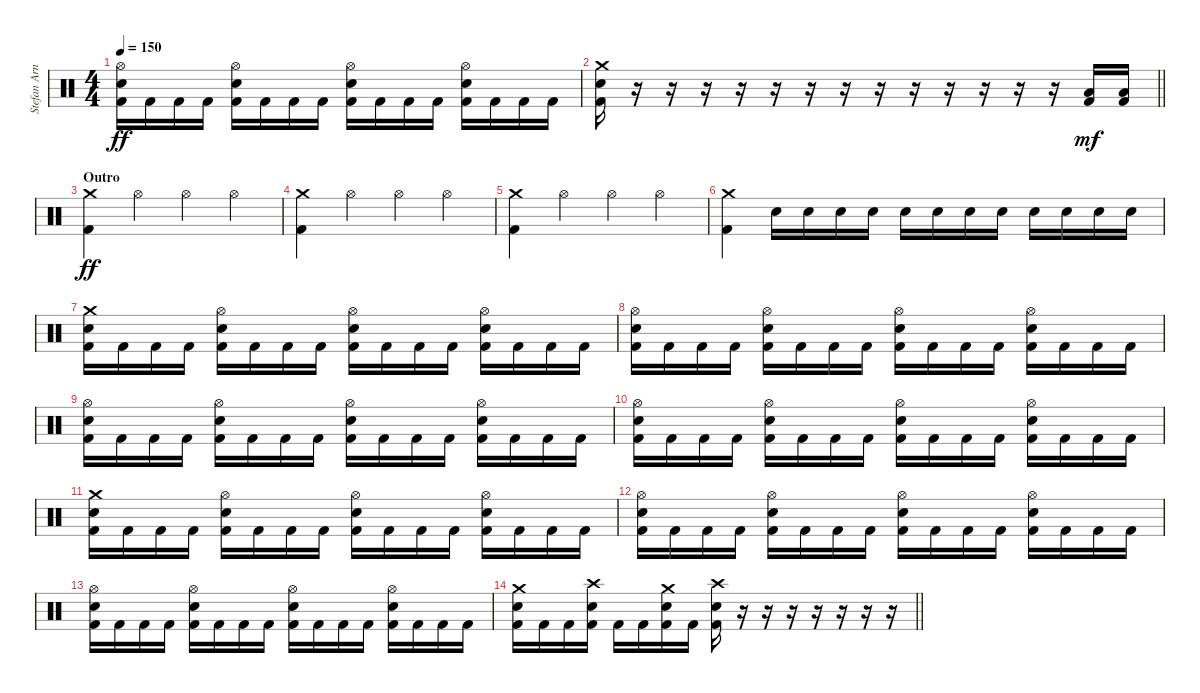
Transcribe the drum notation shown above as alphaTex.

\track ("Stefan Arnold" "Stefan Arn") {instrument percussion}
\staff {score}
\articulation defaults
\ts (4 4)
\tempo 150
\clef neutral
\ks c
("Hi-Hat (open)" "Electric Snare (hit)" "Kick (hit) 2").16{dy ff} "Kick (hit) 2".16 "Kick (hit) 2".16 "Kick (hit) 2".16 ("Hi-Hat (open)" "Electric Snare (hit)" "Kick (hit) 2").16 "Kick (hit) 2".16 "Kick (hit) 2".16 "Kick (hit) 2".16 ("Hi-Hat (open)" "Electric Snare (hit)" "Kick (hit) 2").16 "Kick (hit) 2".16 "Kick (hit) 2".16 "Kick (hit) 2".16 ("Hi-Hat (open)" "Electric Snare (hit)" "Kick (hit) 2").16 "Kick (hit) 2".16 "Kick (hit) 2".16 "Kick (hit) 2".16 |
\barLineRight lightlight
("Crash medium (hit)" "Electric Snare (hit)" "Kick (hit) 2").16 r.16 r.16 r.16 r.16 r.16 r.16 r.16 r.16 r.16 r.16 r.16 r.16 r.16 ("Low Floor Tom (hit)" "Kick (hit) 2").16{dy mf} ("Low Floor Tom (hit)" "Kick (hit) 2").16 |
\section ("" "Outro")
("Crash medium (hit)" "Kick (hit) 2").4{dy ff} "Hi-Hat (open)".4 "Hi-Hat (open)".4 "Hi-Hat (open)".4 |
("Crash medium (hit)" "Kick (hit) 2").4 "Hi-Hat (open)".4 "Hi-Hat (open)".4 "Hi-Hat (open)".4 |
("Crash medium (hit)" "Kick (hit) 2").4 "Hi-Hat (open)".4 "Hi-Hat (open)".4 "Hi-Hat (open)".4 |
("Crash medium (hit)" "Kick (hit) 2").4 "Electric Snare (hit)".16 "Electric Snare (hit)".16 "Electric Snare (hit)".16 "Electric Snare (hit)".16 "Electric Snare (hit)".16 "Electric Snare (hit)".16 "Electric Snare (hit)".16 "Electric Snare (hit)".16 "Electric Snare (hit)".16 "Electric Snare (hit)".16 "Electric Snare (hit)".16 "Electric Snare (hit)".16 |
("Crash medium (hit)" "Electric Snare (hit)" "Kick (hit) 2").16 "Kick (hit) 2".16 "Kick (hit) 2".16 "Kick (hit) 2".16 ("Hi-Hat (open)" "Electric Snare (hit)" "Kick (hit) 2").16 "Kick (hit) 2".16 "Kick (hit) 2".16 "Kick (hit) 2".16 ("Hi-Hat (open)" "Electric Snare (hit)" "Kick (hit) 2").16 "Kick (hit) 2".16 "Kick (hit) 2".16 "Kick (hit) 2".16 ("Hi-Hat (open)" "Electric Snare (hit)" "Kick (hit) 2").16 "Kick (hit) 2".16 "Kick (hit) 2".16 "Kick (hit) 2".16 |
("Hi-Hat (open)" "Electric Snare (hit)" "Kick (hit) 2").16 "Kick (hit) 2".16 "Kick (hit) 2".16 "Kick (hit) 2".16 ("Hi-Hat (open)" "Electric Snare (hit)" "Kick (hit) 2").16 "Kick (hit) 2".16 "Kick (hit) 2".16 "Kick (hit) 2".16 ("Hi-Hat (open)" "Electric Snare (hit)" "Kick (hit) 2").16 "Kick (hit) 2".16 "Kick (hit) 2".16 "Kick (hit) 2".16 ("Hi-Hat (open)" "Electric Snare (hit)" "Kick (hit) 2").16 "Kick (hit) 2".16 "Kick (hit) 2".16 "Kick (hit) 2".16 |
("Hi-Hat (open)" "Electric Snare (hit)" "Kick (hit) 2").16 "Kick (hit) 2".16 "Kick (hit) 2".16 "Kick (hit) 2".16 ("Hi-Hat (open)" "Electric Snare (hit)" "Kick (hit) 2").16 "Kick (hit) 2".16 "Kick (hit) 2".16 "Kick (hit) 2".16 ("Hi-Hat (open)" "Electric Snare (hit)" "Kick (hit) 2").16 "Kick (hit) 2".16 "Kick (hit) 2".16 "Kick (hit) 2".16 ("Hi-Hat (open)" "Electric Snare (hit)" "Kick (hit) 2").16 "Kick (hit) 2".16 "Kick (hit) 2".16 "Kick (hit) 2".16 |
("Hi-Hat (open)" "Electric Snare (hit)" "Kick (hit) 2").16 "Kick (hit) 2".16 "Kick (hit) 2".16 "Kick (hit) 2".16 ("Hi-Hat (open)" "Electric Snare (hit)" "Kick (hit) 2").16 "Kick (hit) 2".16 "Kick (hit) 2".16 "Kick (hit) 2".16 ("Hi-Hat (open)" "Electric Snare (hit)" "Kick (hit) 2").16 "Kick (hit) 2".16 "Kick (hit) 2".16 "Kick (hit) 2".16 ("Hi-Hat (open)" "Electric Snare (hit)" "Kick (hit) 2").16 "Kick (hit) 2".16 "Kick (hit) 2".16 "Kick (hit) 2".16 |
("Crash medium (hit)" "Electric Snare (hit)" "Kick (hit) 2").16 "Kick (hit) 2".16 "Kick (hit) 2".16 "Kick (hit) 2".16 ("Hi-Hat (open)" "Electric Snare (hit)" "Kick (hit) 2").16 "Kick (hit) 2".16 "Kick (hit) 2".16 "Kick (hit) 2".16 ("Hi-Hat (open)" "Electric Snare (hit)" "Kick (hit) 2").16 "Kick (hit) 2".16 "Kick (hit) 2".16 "Kick (hit) 2".16 ("Hi-Hat (open)" "Electric Snare (hit)" "Kick (hit) 2").16 "Kick (hit) 2".16 "Kick (hit) 2".16 "Kick (hit) 2".16 |
("Hi-Hat (open)" "Electric Snare (hit)" "Kick (hit) 2").16 "Kick (hit) 2".16 "Kick (hit) 2".16 "Kick (hit) 2".16 ("Hi-Hat (open)" "Electric Snare (hit)" "Kick (hit) 2").16 "Kick (hit) 2".16 "Kick (hit) 2".16 "Kick (hit) 2".16 ("Hi-Hat (open)" "Electric Snare (hit)" "Kick (hit) 2").16 "Kick (hit) 2".16 "Kick (hit) 2".16 "Kick (hit) 2".16 ("Hi-Hat (open)" "Electric Snare (hit)" "Kick (hit) 2").16 "Kick (hit) 2".16 "Kick (hit) 2".16 "Kick (hit) 2".16 |
("Hi-Hat (open)" "Electric Snare (hit)" "Kick (hit) 2").16 "Kick (hit) 2".16 "Kick (hit) 2".16 "Kick (hit) 2".16 ("Hi-Hat (open)" "Electric Snare (hit)" "Kick (hit) 2").16 "Kick (hit) 2".16 "Kick (hit) 2".16 "Kick (hit) 2".16 ("Hi-Hat (open)" "Electric Snare (hit)" "Kick (hit) 2").16 "Kick (hit) 2".16 "Kick (hit) 2".16 "Kick (hit) 2".16 ("Hi-Hat (open)" "Electric Snare (hit)" "Kick (hit) 2").16 "Kick (hit) 2".16 "Kick (hit) 2".16 "Kick (hit) 2".16 |
\barLineRight lightlight
("Crash medium (hit)" "Electric Snare (hit)" "Kick (hit) 2").16 "Kick (hit) 2".16 "Kick (hit) 2".16 ("Crash high (hit)" "Electric Snare (hit)" "Kick (hit) 2").16 "Kick (hit) 2".16 "Kick (hit) 2".16 ("Crash medium (hit)" "Electric Snare (hit)" "Kick (hit) 2").16 "Kick (hit) 2".16 ("Crash high (hit)" "Electric Snare (hit)" "Kick (hit) 2").16 r.16 r.16 r.16 r.16 r.16 r.16 r.16
